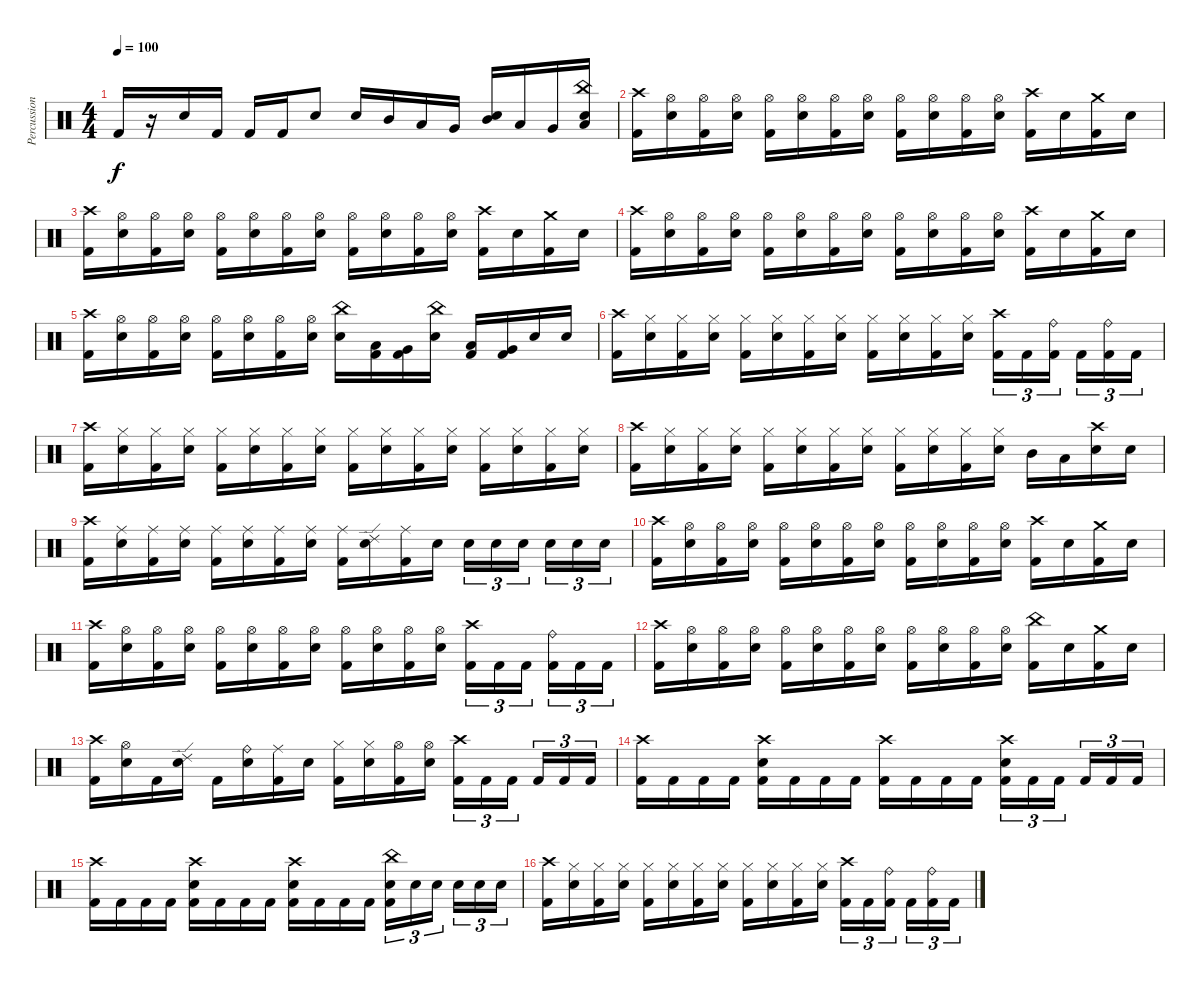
\track ("Percussion" "Percussion") {instrument percussion}
\staff {score}
\articulation defaults
\ts (4 4)
\tempo 100
\clef neutral
\ks c "Kick (hit) 2".16{dy f}
r.16 "Snare (hit) 2".16 "Kick (hit) 2".16 "Kick (hit) 2".16 "Kick (hit) 2".16 "Snare (hit) 2".8 "Snare (hit) 2".16 "Mid Tom (hit)".16 "Low Tom (hit)".16 "Very Low Tom (hit)".16 ("Mid Tom (hit)" "Snare (hit) 2").16 "Low Tom (hit)".16 "Very Low Tom (hit)".16 ("China (hit)" "Low Floor Tom (hit)" "Snare (hit) 2").16 |
("Crash high (hit)" "Kick (hit) 2").16 ("Hi-Hat (open)" "Snare (hit) 2").16 ("Hi-Hat (open)" "Kick (hit) 2").16 ("Hi-Hat (open)" "Snare (hit) 2").16 ("Hi-Hat (open)" "Kick (hit) 2").16 ("Hi-Hat (open)" "Snare (hit) 2").16 ("Hi-Hat (open)" "Kick (hit) 2").16 ("Hi-Hat (open)" "Snare (hit) 2").16 ("Hi-Hat (open)" "Kick (hit) 2").16 ("Hi-Hat (open)" "Snare (hit) 2").16 ("Hi-Hat (open)" "Kick (hit) 2").16 ("Hi-Hat (open)" "Snare (hit) 2").16 ("Crash high (hit)" "Kick (hit) 2").16 "Snare (hit) 2".16 ("Crash medium (hit)" "Kick (hit) 2").16 "Snare (hit) 2".16 |
("Crash high (hit)" "Kick (hit) 2").16 ("Hi-Hat (open)" "Snare (hit) 2").16 ("Hi-Hat (open)" "Kick (hit) 2").16 ("Hi-Hat (open)" "Snare (hit) 2").16 ("Hi-Hat (open)" "Kick (hit) 2").16 ("Hi-Hat (open)" "Snare (hit) 2").16 ("Hi-Hat (open)" "Kick (hit) 2").16 ("Hi-Hat (open)" "Snare (hit) 2").16 ("Hi-Hat (open)" "Kick (hit) 2").16 ("Hi-Hat (open)" "Snare (hit) 2").16 ("Hi-Hat (open)" "Kick (hit) 2").16 ("Hi-Hat (open)" "Snare (hit) 2").16 ("Crash high (hit)" "Kick (hit) 2").16 "Snare (hit) 2".16 ("Crash medium (hit)" "Kick (hit) 2").16 "Snare (hit) 2".16 |
("Crash high (hit)" "Kick (hit) 2").16 ("Hi-Hat (open)" "Snare (hit) 2").16 ("Hi-Hat (open)" "Kick (hit) 2").16 ("Hi-Hat (open)" "Snare (hit) 2").16 ("Hi-Hat (open)" "Kick (hit) 2").16 ("Hi-Hat (open)" "Snare (hit) 2").16 ("Hi-Hat (open)" "Kick (hit) 2").16 ("Hi-Hat (open)" "Snare (hit) 2").16 ("Hi-Hat (open)" "Kick (hit) 2").16 ("Hi-Hat (open)" "Snare (hit) 2").16 ("Hi-Hat (open)" "Kick (hit) 2").16 ("Hi-Hat (open)" "Snare (hit) 2").16 ("Crash high (hit)" "Kick (hit) 2").16 "Snare (hit) 2".16 ("Crash medium (hit)" "Kick (hit) 2").16 "Snare (hit) 2".16 |
("Crash high (hit)" "Kick (hit) 2").16 ("Hi-Hat (open)" "Snare (hit) 2").16 ("Hi-Hat (open)" "Kick (hit) 2").16 ("Hi-Hat (open)" "Snare (hit) 2").16 ("Hi-Hat (open)" "Kick (hit) 2").16 ("Hi-Hat (open)" "Snare (hit) 2").16 ("Hi-Hat (open)" "Kick (hit) 2").16 ("Hi-Hat (open)" "Snare (hit) 2").16 ("China (hit)" "Snare (hit) 2").16 ("Low Tom (hit)" "Kick (hit) 2").16 ("Very Low Tom (hit)" "Kick (hit) 2").16 ("China (hit)" "Snare (hit) 2").16 ("Low Tom (hit)" "Kick (hit) 2").16 ("Very Low Tom (hit)" "Kick (hit) 2").16 "Snare (hit) 2".16 "Snare (hit) 2".16 |
("Crash high (hit)" "Kick (hit) 2").16 ("Hi-Hat (closed)" "Snare (hit) 2").16 ("Hi-Hat (closed)" "Kick (hit) 2").16 ("Hi-Hat (closed)" "Snare (hit) 2").16 ("Hi-Hat (closed)" "Kick (hit) 2").16 ("Hi-Hat (closed)" "Snare (hit) 2").16 ("Hi-Hat (closed)" "Kick (hit) 2").16 ("Hi-Hat (closed)" "Snare (hit) 2").16 ("Hi-Hat (closed)" "Kick (hit) 2").16 ("Hi-Hat (closed)" "Snare (hit) 2").16 ("Hi-Hat (closed)" "Kick (hit) 2").16 ("Hi-Hat (closed)" "Snare (hit) 2").16 ("Crash high (hit)" "Kick (hit) 2").16{tu (3 2)} "Kick (hit) 2".16{tu (3 2)} ("Ride (bell)" "Kick (hit) 2").16{tu (3 2) beam splitsecondary} "Kick (hit) 2".16{tu (3 2)} ("Ride (bell)" "Kick (hit) 2").16{tu (3 2)} "Kick (hit) 2".16{tu (3 2)} |
("Crash high (hit)" "Kick (hit) 2").16 ("Hi-Hat (closed)" "Snare (hit) 2").16 ("Hi-Hat (closed)" "Kick (hit) 2").16 ("Hi-Hat (closed)" "Snare (hit) 2").16 ("Hi-Hat (closed)" "Kick (hit) 2").16 ("Hi-Hat (closed)" "Snare (hit) 2").16 ("Hi-Hat (closed)" "Kick (hit) 2").16 ("Hi-Hat (closed)" "Snare (hit) 2").16 ("Hi-Hat (closed)" "Kick (hit) 2").16 ("Hi-Hat (closed)" "Snare (hit) 2").16 ("Hi-Hat (closed)" "Kick (hit) 2").16 ("Hi-Hat (closed)" "Snare (hit) 2").16 ("Hi-Hat (closed)" "Kick (hit) 2").16 ("Hi-Hat (closed)" "Snare (hit) 2").16 ("Hi-Hat (closed)" "Kick (hit) 2").16 ("Hi-Hat (closed)" "Snare (hit) 2").16 |
("Crash high (hit)" "Kick (hit) 2").16 ("Hi-Hat (closed)" "Snare (hit) 2").16 ("Hi-Hat (closed)" "Kick (hit) 2").16 ("Hi-Hat (closed)" "Snare (hit) 2").16 ("Hi-Hat (closed)" "Kick (hit) 2").16 ("Hi-Hat (closed)" "Snare (hit) 2").16 ("Hi-Hat (closed)" "Kick (hit) 2").16 ("Hi-Hat (closed)" "Snare (hit) 2").16 ("Hi-Hat (closed)" "Kick (hit) 2").16 ("Hi-Hat (closed)" "Snare (hit) 2").16 ("Hi-Hat (closed)" "Kick (hit) 2").16 ("Hi-Hat (closed)" "Snare (hit) 2").16 "Mid Tom (hit)".16 "Low Tom (hit)".16 ("Crash high (hit)" "Snare (hit) 2").16 "Snare (hit) 2".16 |
("Crash high (hit)" "Kick (hit) 2").16 ("Ride (middle)" "Snare (hit) 2").16 ("Ride (middle)" "Kick (hit) 2").16 ("Ride (middle)" "Snare (hit) 2").16 ("Ride (middle)" "Kick (hit) 2").16 ("Ride (middle)" "Snare (hit) 2").16 ("Ride (middle)" "Kick (hit) 2").16 ("Ride (middle)" "Snare (hit) 2").16 ("Ride (middle)" "Kick (hit) 2").16 ("Ride (edge) 2" "Snare (hit) 2").16 ("Ride (middle)" "Kick (hit) 2").16 "Snare (hit) 2".16 "Snare (hit) 2".16{tu (3 2)} "Snare (hit) 2".16{tu (3 2)} "Snare (hit) 2".16{tu (3 2) beam splitsecondary} "Snare (hit) 2".16{tu (3 2)} "Snare (hit) 2".16{tu (3 2)} "Snare (hit) 2".16{tu (3 2)} |
("Crash high (hit)" "Kick (hit) 2").16 ("Hi-Hat (open)" "Snare (hit) 2").16 ("Hi-Hat (open)" "Kick (hit) 2").16 ("Hi-Hat (open)" "Snare (hit) 2").16 ("Hi-Hat (open)" "Kick (hit) 2").16 ("Hi-Hat (open)" "Snare (hit) 2").16 ("Hi-Hat (open)" "Kick (hit) 2").16 ("Hi-Hat (open)" "Snare (hit) 2").16 ("Hi-Hat (open)" "Kick (hit) 2").16 ("Hi-Hat (open)" "Snare (hit) 2").16 ("Hi-Hat (open)" "Kick (hit) 2").16 ("Hi-Hat (open)" "Snare (hit) 2").16 ("Crash high (hit)" "Kick (hit) 2").16 "Snare (hit) 2".16 ("Crash medium (hit)" "Kick (hit) 2").16 "Snare (hit) 2".16 |
("Crash high (hit)" "Kick (hit) 2").16 ("Hi-Hat (open)" "Snare (hit) 2").16 ("Hi-Hat (open)" "Kick (hit) 2").16 ("Hi-Hat (open)" "Snare (hit) 2").16 ("Hi-Hat (open)" "Kick (hit) 2").16 ("Hi-Hat (open)" "Snare (hit) 2").16 ("Hi-Hat (open)" "Kick (hit) 2").16 ("Hi-Hat (open)" "Snare (hit) 2").16 ("Hi-Hat (open)" "Kick (hit) 2").16 ("Hi-Hat (open)" "Snare (hit) 2").16 ("Hi-Hat (open)" "Kick (hit) 2").16 ("Hi-Hat (open)" "Snare (hit) 2").16 ("Crash high (hit)" "Kick (hit) 2").16{tu (3 2)} "Kick (hit) 2".16{tu (3 2)} "Kick (hit) 2".16{tu (3 2) beam splitsecondary} ("Ride (bell)" "Kick (hit) 2").16{tu (3 2)} "Kick (hit) 2".16{tu (3 2)} "Kick (hit) 2".16{tu (3 2)} |
("Crash high (hit)" "Kick (hit) 2").16 ("Hi-Hat (open)" "Snare (hit) 2").16 ("Hi-Hat (open)" "Kick (hit) 2").16 ("Hi-Hat (open)" "Snare (hit) 2").16 ("Hi-Hat (open)" "Kick (hit) 2").16 ("Hi-Hat (open)" "Snare (hit) 2").16 ("Hi-Hat (open)" "Kick (hit) 2").16 ("Hi-Hat (open)" "Snare (hit) 2").16 ("Hi-Hat (open)" "Kick (hit) 2").16 ("Hi-Hat (open)" "Snare (hit) 2").16 ("Hi-Hat (open)" "Kick (hit) 2").16 ("Hi-Hat (open)" "Snare (hit) 2").16 ("China (hit)" "Kick (hit) 2").16 "Snare (hit) 2".16 ("Crash medium (hit)" "Kick (hit) 2").16 "Snare (hit) 2".16 |
("Crash high (hit)" "Kick (hit) 2").16 ("Hi-Hat (open)" "Snare (hit) 2").16 "Kick (hit) 2".16 ("Ride (edge) 2" "Snare (hit) 2").16 "Kick (hit) 2".16 ("Ride (bell)" "Snare (hit) 2").16 ("Ride (middle)" "Kick (hit) 2").16 "Snare (hit) 2".16 ("Hi-Hat (closed)" "Kick (hit) 2").16 ("Hi-Hat (closed)" "Snare (hit) 2").16 ("Hi-Hat (open)" "Kick (hit) 2").16 ("Hi-Hat (open)" "Snare (hit) 2").16 ("Crash high (hit)" "Kick (hit) 2").16{tu (3 2)} "Kick (hit) 2".16{tu (3 2)} "Kick (hit) 2".16{tu (3 2) beam splitsecondary} "Kick (hit) 2".16{tu (3 2)} "Kick (hit) 2".16{tu (3 2)} "Kick (hit) 2".16{tu (3 2)} |
("Crash high (hit)" "Kick (hit) 2").16 "Kick (hit) 2".16 "Kick (hit) 2".16 "Kick (hit) 2".16 ("Crash high (hit)" "Snare (hit) 2" "Kick (hit) 2").16 "Kick (hit) 2".16 "Kick (hit) 2".16 "Kick (hit) 2".16 ("Crash high (hit)" "Kick (hit) 2").16 "Kick (hit) 2".16 "Kick (hit) 2".16 "Kick (hit) 2".16 ("Crash high (hit)" "Snare (hit) 2" "Kick (hit) 2").16{tu (3 2)} "Kick (hit) 2".16{tu (3 2)} "Kick (hit) 2".16{tu (3 2) beam splitsecondary} "Kick (hit) 2".16{tu (3 2)} "Kick (hit) 2".16{tu (3 2)} "Kick (hit) 2".16{tu (3 2)} |
("Crash high (hit)" "Kick (hit) 2").16 "Kick (hit) 2".16 "Kick (hit) 2".16 "Kick (hit) 2".16 ("Crash high (hit)" "Snare (hit) 2" "Kick (hit) 2").16 "Kick (hit) 2".16 "Kick (hit) 2".16 "Kick (hit) 2".16 ("Crash high (hit)" "Snare (hit) 2" "Kick (hit) 2").16 "Kick (hit) 2".16 "Kick (hit) 2".16 "Kick (hit) 2".16 ("China (hit)" "Snare (hit) 2" "Kick (hit) 2").16{tu (3 2)} "Snare (hit) 2".16{tu (3 2)} "Snare (hit) 2".16{tu (3 2) beam splitsecondary} "Snare (hit) 2".16{tu (3 2)} "Snare (hit) 2".16{tu (3 2)} "Snare (hit) 2".16{tu (3 2)} |
("Crash high (hit)" "Kick (hit) 2").16 ("Hi-Hat (closed)" "Snare (hit) 2").16 ("Hi-Hat (closed)" "Kick (hit) 2").16 ("Hi-Hat (closed)" "Snare (hit) 2").16 ("Hi-Hat (closed)" "Kick (hit) 2").16 ("Hi-Hat (closed)" "Snare (hit) 2").16 ("Hi-Hat (closed)" "Kick (hit) 2").16 ("Hi-Hat (closed)" "Snare (hit) 2").16 ("Hi-Hat (closed)" "Kick (hit) 2").16 ("Hi-Hat (closed)" "Snare (hit) 2").16 ("Hi-Hat (closed)" "Kick (hit) 2").16 ("Hi-Hat (closed)" "Snare (hit) 2").16 ("Crash high (hit)" "Kick (hit) 2").16{tu (3 2)} "Kick (hit) 2".16{tu (3 2)} ("Ride (bell)" "Kick (hit) 2").16{tu (3 2) beam splitsecondary} "Kick (hit) 2".16{tu (3 2)} ("Ride (bell)" "Kick (hit) 2").16{tu (3 2)} "Kick (hit) 2".16{tu (3 2)}
